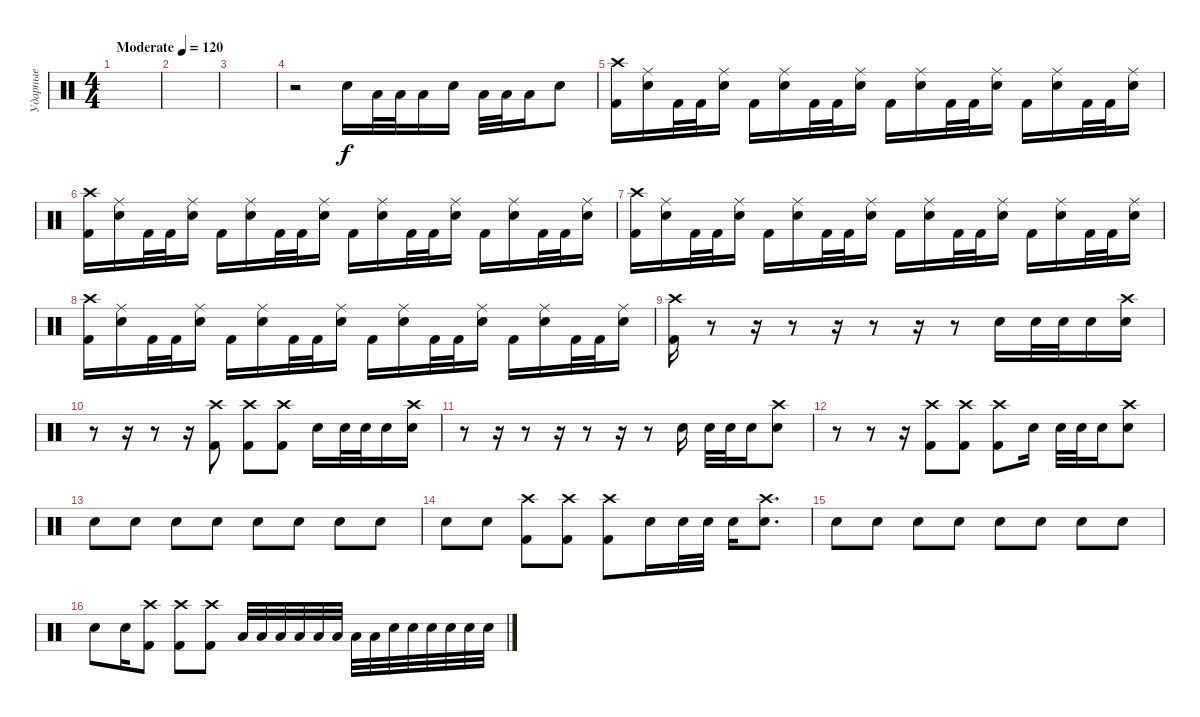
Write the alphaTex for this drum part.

\track ("Ударные" "Ударные") {instrument percussion}
\staff {score}
\articulation defaults
\ts (4 4)
\tempo (120 "Moderate")
\clef neutral
\ks c
|
|
|
r.2 "Electric Snare (hit)".16 "Low Tom (hit)".32 "Low Tom (hit)".32 "Low Tom (hit)".16 "Electric Snare (hit)".16 "Low Tom (hit)".32 "Low Tom (hit)".32 "Low Tom (hit)".16 "Electric Snare (hit)".8 |
("Kick (hit) 2" "Crash high (hit)").16 ("Electric Snare (hit)" "Ride (middle)").16 "Kick (hit) 2".32 "Kick (hit) 2".32 ("Electric Snare (hit)" "Ride (middle)").16 "Kick (hit) 2".16 ("Electric Snare (hit)" "Ride (middle)").16 "Kick (hit) 2".32 "Kick (hit) 2".32 ("Electric Snare (hit)" "Ride (middle)").16 "Kick (hit) 2".16 ("Electric Snare (hit)" "Ride (middle)").16 "Kick (hit) 2".32 "Kick (hit) 2".32 ("Electric Snare (hit)" "Ride (middle)").16 "Kick (hit) 2".16 ("Electric Snare (hit)" "Ride (middle)").16 "Kick (hit) 2".32 "Kick (hit) 2".32 ("Electric Snare (hit)" "Ride (middle)").16 |
("Kick (hit) 2" "Crash high (hit)").16 ("Electric Snare (hit)" "Ride (middle)").16 "Kick (hit) 2".32 "Kick (hit) 2".32 ("Electric Snare (hit)" "Ride (middle)").16 "Kick (hit) 2".16 ("Electric Snare (hit)" "Ride (middle)").16 "Kick (hit) 2".32 "Kick (hit) 2".32 ("Electric Snare (hit)" "Ride (middle)").16 "Kick (hit) 2".16 ("Electric Snare (hit)" "Ride (middle)").16 "Kick (hit) 2".32 "Kick (hit) 2".32 ("Electric Snare (hit)" "Ride (middle)").16 "Kick (hit) 2".16 ("Electric Snare (hit)" "Ride (middle)").16 "Kick (hit) 2".32 "Kick (hit) 2".32 ("Electric Snare (hit)" "Ride (middle)").16 |
("Kick (hit) 2" "Crash high (hit)").16 ("Electric Snare (hit)" "Ride (middle)").16 "Kick (hit) 2".32 "Kick (hit) 2".32 ("Electric Snare (hit)" "Ride (middle)").16 "Kick (hit) 2".16 ("Electric Snare (hit)" "Ride (middle)").16 "Kick (hit) 2".32 "Kick (hit) 2".32 ("Electric Snare (hit)" "Ride (middle)").16 "Kick (hit) 2".16 ("Electric Snare (hit)" "Ride (middle)").16 "Kick (hit) 2".32 "Kick (hit) 2".32 ("Electric Snare (hit)" "Ride (middle)").16 "Kick (hit) 2".16 ("Electric Snare (hit)" "Ride (middle)").16 "Kick (hit) 2".32 "Kick (hit) 2".32 ("Electric Snare (hit)" "Ride (middle)").16 |
("Kick (hit) 2" "Crash high (hit)").16 ("Electric Snare (hit)" "Ride (middle)").16 "Kick (hit) 2".32 "Kick (hit) 2".32 ("Electric Snare (hit)" "Ride (middle)").16 "Kick (hit) 2".16 ("Electric Snare (hit)" "Ride (middle)").16 "Kick (hit) 2".32 "Kick (hit) 2".32 ("Electric Snare (hit)" "Ride (middle)").16 "Kick (hit) 2".16 ("Electric Snare (hit)" "Ride (middle)").16 "Kick (hit) 2".32 "Kick (hit) 2".32 ("Electric Snare (hit)" "Ride (middle)").16 "Kick (hit) 2".16 ("Electric Snare (hit)" "Ride (middle)").16 "Kick (hit) 2".32 "Kick (hit) 2".32 ("Electric Snare (hit)" "Ride (middle)").16 |
("Kick (hit) 2" "Crash high (hit)").16 r.8 r.16 r.8 r.16 r.8 r.16 r.8 "Electric Snare (hit)".16 "Electric Snare (hit)".32 "Electric Snare (hit)".32 "Electric Snare (hit)".16 ("Electric Snare (hit)" "Crash high (hit)").16 |
r.8 r.16 r.8 r.16 ("Kick (hit) 2" "Crash high (hit)").8 ("Kick (hit) 2" "Crash high (hit)").8 ("Kick (hit) 2" "Crash high (hit)").8 "Electric Snare (hit)".16 "Electric Snare (hit)".32 "Electric Snare (hit)".32 "Electric Snare (hit)".16 ("Electric Snare (hit)" "Crash high (hit)").16 |
r.8 r.16 r.8 r.16 r.8 r.16 r.8 "Electric Snare (hit)".16 "Electric Snare (hit)".32 "Electric Snare (hit)".32 "Electric Snare (hit)".16 ("Electric Snare (hit)" "Crash high (hit)").8 |
r.8 r.8 r.16 ("Crash high (hit)" "Kick (hit) 2").8 ("Kick (hit) 2" "Crash high (hit)").8 ("Kick (hit) 2" "Crash high (hit)").8 "Electric Snare (hit)".16 "Electric Snare (hit)".32 "Electric Snare (hit)".32 "Electric Snare (hit)".16 ("Electric Snare (hit)" "Crash high (hit)").8 |
"Electric Snare (hit)".8 "Electric Snare (hit)".8 "Electric Snare (hit)".8 "Electric Snare (hit)".8 "Electric Snare (hit)".8 "Electric Snare (hit)".8 "Electric Snare (hit)".8 "Electric Snare (hit)".8 |
"Electric Snare (hit)".8 "Electric Snare (hit)".8 ("Kick (hit) 2" "Crash high (hit)").8 ("Kick (hit) 2" "Crash high (hit)").8 ("Kick (hit) 2" "Crash high (hit)").8 "Electric Snare (hit)".16 "Electric Snare (hit)".32 "Electric Snare (hit)".32 "Electric Snare (hit)".16 ("Electric Snare (hit)" "Crash high (hit)").8{d} |
"Electric Snare (hit)".8 "Electric Snare (hit)".8 "Electric Snare (hit)".8 "Electric Snare (hit)".8 "Electric Snare (hit)".8 "Electric Snare (hit)".8 "Electric Snare (hit)".8 "Electric Snare (hit)".8 |
"Electric Snare (hit)".8 "Electric Snare (hit)".16 ("Kick (hit) 2" "Crash high (hit)").8 ("Kick (hit) 2" "Crash high (hit)").8 ("Kick (hit) 2" "Crash high (hit)").8 "Low Tom (hit)".32 "Low Tom (hit)".32 "Low Tom (hit)".32 "Low Tom (hit)".32 "Low Tom (hit)".32 "Low Tom (hit)".32 "Low Tom (hit)".32 "Low Tom (hit)".32 "Electric Snare (hit)".32 "Electric Snare (hit)".32 "Electric Snare (hit)".32 "Electric Snare (hit)".32 "Electric Snare (hit)".32 "Electric Snare (hit)".32
